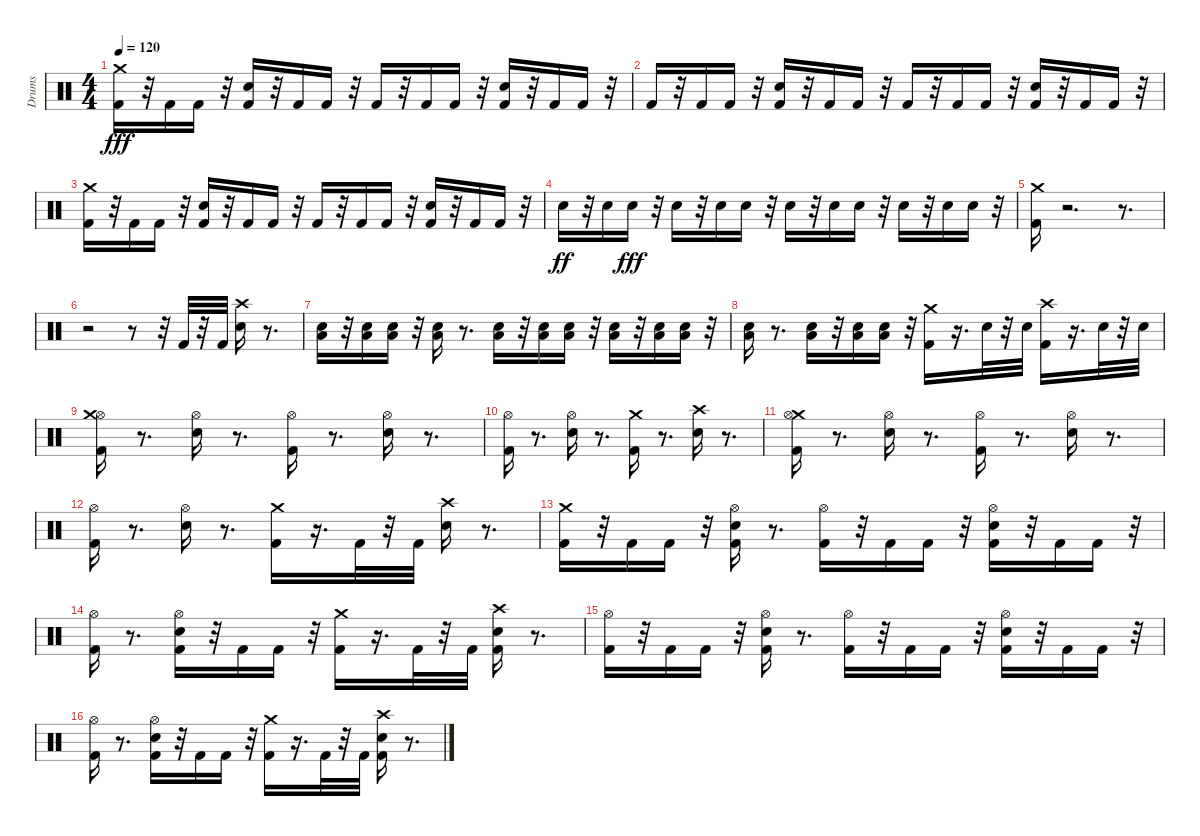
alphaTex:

\track ("Drums" "Drums") {instrument percussion}
\staff {score}
\articulation defaults
\ts (4 4)
\tempo 120
\clef neutral
\ks c
("Kick (hit) 2" "Crash medium (hit)").16{dy fff} r.32 "Kick (hit) 2".16 "Kick (hit) 2".16 r.32 ("Kick (hit) 2" "Electric Snare (hit)").16 r.32 "Kick (hit) 2".16 "Kick (hit) 2".16 r.32 "Kick (hit) 2".16 r.32 "Kick (hit) 2".16 "Kick (hit) 2".16 r.32 ("Kick (hit) 2" "Electric Snare (hit)").16 r.32 "Kick (hit) 2".16 "Kick (hit) 2".16 r.32 |
"Kick (hit) 2".16 r.32 "Kick (hit) 2".16 "Kick (hit) 2".16 r.32 ("Kick (hit) 2" "Electric Snare (hit)").16 r.32 "Kick (hit) 2".16 "Kick (hit) 2".16 r.32 "Kick (hit) 2".16 r.32 "Kick (hit) 2".16 "Kick (hit) 2".16 r.32 ("Kick (hit) 2" "Electric Snare (hit)").16 r.32 "Kick (hit) 2".16 "Kick (hit) 2".16 r.32 |
("Kick (hit) 2" "Crash medium (hit)").16 r.32 "Kick (hit) 2".16 "Kick (hit) 2".16 r.32 ("Kick (hit) 2" "Electric Snare (hit)").16 r.32 "Kick (hit) 2".16 "Kick (hit) 2".16 r.32 "Kick (hit) 2".16 r.32 "Kick (hit) 2".16 "Kick (hit) 2".16 r.32 ("Kick (hit) 2" "Electric Snare (hit)").16 r.32 "Kick (hit) 2".16 "Kick (hit) 2".16 r.32 |
"Electric Snare (hit)".16{dy ff} r.32 "Electric Snare (hit)".16 "Electric Snare (hit)".16{dy fff} r.32 "Electric Snare (hit)".16 r.32 "Electric Snare (hit)".16 "Electric Snare (hit)".16 r.32 "Electric Snare (hit)".16 r.32 "Electric Snare (hit)".16 "Electric Snare (hit)".16 r.32 "Electric Snare (hit)".16 r.32 "Electric Snare (hit)".16 "Electric Snare (hit)".16 r.32 |
("Kick (hit) 2" "Crash medium (hit)").16 r.2{d} r.8{d} |
r.2 r.8 r.32 "Kick (hit) 2".32 r.32 "Kick (hit) 2".32 ("Electric Snare (hit)" "Crash high (hit)").16 r.8{d} |
("Electric Snare (hit)" "Low Floor Tom (hit)").16 r.32 ("Electric Snare (hit)" "Low Floor Tom (hit)").16 ("Electric Snare (hit)" "Low Floor Tom (hit)").16 r.32 ("Electric Snare (hit)" "Low Floor Tom (hit)").16 r.8{d} ("Electric Snare (hit)" "Low Floor Tom (hit)").16 r.32 ("Electric Snare (hit)" "Low Floor Tom (hit)").16 ("Electric Snare (hit)" "Low Floor Tom (hit)").16 r.32 ("Electric Snare (hit)" "Low Floor Tom (hit)").16 r.32 ("Electric Snare (hit)" "Low Floor Tom (hit)").16 ("Electric Snare (hit)" "Low Floor Tom (hit)").16 r.32 |
("Electric Snare (hit)" "Low Floor Tom (hit)").16 r.8{d} ("Electric Snare (hit)" "Low Floor Tom (hit)").16 r.32 ("Electric Snare (hit)" "Low Floor Tom (hit)").16 ("Electric Snare (hit)" "Low Floor Tom (hit)").16 r.32 ("Kick (hit) 2" "Crash medium (hit)").16 r.16{d} "Electric Snare (hit)".32 r.32 "Electric Snare (hit)".32 ("Kick (hit) 2" "Crash high (hit)").16 r.16{d} "Electric Snare (hit)".32 r.32 "Electric Snare (hit)".32 |
("Kick (hit) 2" "Hi-Hat (open)" "Crash medium (hit)").16 r.8{d} ("Electric Snare (hit)" "Hi-Hat (open)").16 r.8{d} ("Kick (hit) 2" "Hi-Hat (open)").16 r.8{d} ("Electric Snare (hit)" "Hi-Hat (open)").16 r.8{d} |
("Kick (hit) 2" "Hi-Hat (open)").16 r.8{d} ("Electric Snare (hit)" "Hi-Hat (open)").16 r.8{d} ("Kick (hit) 2" "Crash medium (hit)").16 r.8{d} ("Electric Snare (hit)" "Crash high (hit)").16 r.8{d} |
("Kick (hit) 2" "Crash medium (hit)" "Hi-Hat (open)").16 r.8{d} ("Electric Snare (hit)" "Hi-Hat (open)").16 r.8{d} ("Kick (hit) 2" "Hi-Hat (open)").16 r.8{d} ("Electric Snare (hit)" "Hi-Hat (open)").16 r.8{d} |
("Kick (hit) 2" "Hi-Hat (open)").16 r.8{d} ("Electric Snare (hit)" "Hi-Hat (open)").16 r.8{d} ("Kick (hit) 2" "Crash medium (hit)").16 r.16{d} "Kick (hit) 2".32 r.32 "Kick (hit) 2".32 ("Electric Snare (hit)" "Crash high (hit)").16 r.8{d} |
("Kick (hit) 2" "Crash medium (hit)").16 r.32 "Kick (hit) 2".16 "Kick (hit) 2".16 r.32 ("Electric Snare (hit)" "Kick (hit) 2" "Hi-Hat (open)").16 r.8{d} ("Kick (hit) 2" "Hi-Hat (open)").16 r.32 "Kick (hit) 2".16 "Kick (hit) 2".16 r.32 ("Electric Snare (hit)" "Kick (hit) 2" "Hi-Hat (open)").16 r.32 "Kick (hit) 2".16 "Kick (hit) 2".16 r.32 |
("Kick (hit) 2" "Hi-Hat (open)").16 r.8{d} ("Electric Snare (hit)" "Kick (hit) 2" "Hi-Hat (open)").16 r.32 "Kick (hit) 2".16 "Kick (hit) 2".16 r.32 ("Kick (hit) 2" "Crash medium (hit)").16 r.16{d} "Kick (hit) 2".32 r.32 "Kick (hit) 2".32 ("Electric Snare (hit)" "Kick (hit) 2" "Crash high (hit)").16 r.8{d} |
("Kick (hit) 2" "Hi-Hat (open)").16 r.32 "Kick (hit) 2".16 "Kick (hit) 2".16 r.32 ("Electric Snare (hit)" "Kick (hit) 2" "Hi-Hat (open)").16 r.8{d} ("Kick (hit) 2" "Hi-Hat (open)").16 r.32 "Kick (hit) 2".16 "Kick (hit) 2".16 r.32 ("Electric Snare (hit)" "Kick (hit) 2" "Hi-Hat (open)").16 r.32 "Kick (hit) 2".16 "Kick (hit) 2".16 r.32 |
("Kick (hit) 2" "Hi-Hat (open)").16 r.8{d} ("Electric Snare (hit)" "Kick (hit) 2" "Hi-Hat (open)").16 r.32 "Kick (hit) 2".16 "Kick (hit) 2".16 r.32 ("Kick (hit) 2" "Crash medium (hit)").16 r.16{d} "Kick (hit) 2".32 r.32 "Kick (hit) 2".32 ("Electric Snare (hit)" "Kick (hit) 2" "Crash high (hit)").16 r.8{d}
